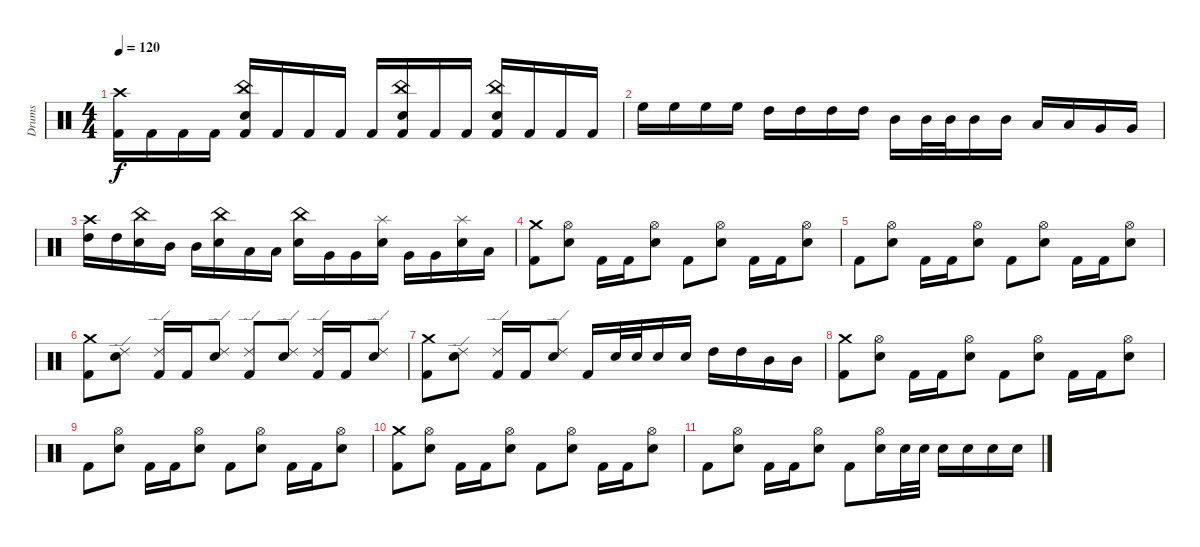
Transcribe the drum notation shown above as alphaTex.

\track ("Drums" "Drums") {instrument percussion}
\staff {score}
\articulation defaults
\ts (4 4)
\tempo 120
\clef neutral
\ks c
("Crash high (hit)" "Kick (hit) 2").16{dy f} "Kick (hit) 2".16 "Kick (hit) 2".16 "Kick (hit) 2".16 ("China (hit)" "Electric Snare (hit)" "Kick (hit) 2").16 "Kick (hit) 2".16 "Kick (hit) 2".16 "Kick (hit) 2".16 "Kick (hit) 2".16 ("China (hit)" "Electric Snare (hit)" "Kick (hit) 2").16 "Kick (hit) 2".16 "Kick (hit) 2".16 ("China (hit)" "Electric Snare (hit)" "Kick (hit) 2").16 "Kick (hit) 2".16 "Kick (hit) 2".16 "Kick (hit) 2".16 |
"High Floor Tom (hit)".16 "High Floor Tom (hit)".16 "High Floor Tom (hit)".16 "High Floor Tom (hit)".16 "High Tom (hit)".16 "High Tom (hit)".16 "High Tom (hit)".16 "High Tom (hit)".16 "Mid Tom (hit)".16 "Mid Tom (hit)".32 "Mid Tom (hit)".32 "Mid Tom (hit)".16 "Mid Tom (hit)".16 "Low Tom (hit)".16 "Low Tom (hit)".16 "Very Low Tom (hit)".16 "Very Low Tom (hit)".16 |
("Crash high (hit)" "High Tom (hit)").16 "High Tom (hit)".16 ("China (hit)" "Electric Snare (hit)").16 "Mid Tom (hit)".16 "Mid Tom (hit)".16 ("China (hit)" "Electric Snare (hit)").16 "Low Tom (hit)".16 "Low Tom (hit)".16 ("China (hit)" "Electric Snare (hit)").16 "Very Low Tom (hit)".16 "Very Low Tom (hit)".16 ("Splash (hit)" "Electric Snare (hit)").16 "Very Low Tom (hit)".16 "Very Low Tom (hit)".16 ("Splash (hit)" "Electric Snare (hit)").16 "Low Floor Tom (hit)".16 |
("Crash medium (hit)" "Kick (hit) 2").8 ("Hi-Hat (open)" "Electric Snare (hit)").8 "Kick (hit) 2".16 "Kick (hit) 2".16 ("Hi-Hat (open)" "Electric Snare (hit)").8 "Kick (hit) 2".8 ("Hi-Hat (open)" "Electric Snare (hit)").8 "Kick (hit) 2".16 "Kick (hit) 2".16 ("Hi-Hat (open)" "Electric Snare (hit)").8 |
"Kick (hit) 2".8 ("Hi-Hat (open)" "Electric Snare (hit)").8 "Kick (hit) 2".16 "Kick (hit) 2".16 ("Hi-Hat (open)" "Electric Snare (hit)").8 "Kick (hit) 2".8 ("Hi-Hat (open)" "Electric Snare (hit)").8 "Kick (hit) 2".16 "Kick (hit) 2".16 ("Hi-Hat (open)" "Electric Snare (hit)").8 |
("Crash medium (hit)" "Kick (hit) 2").8 ("Ride (edge) 2" "Electric Snare (hit)").8 ("Ride (edge) 2" "Kick (hit) 2").16 "Kick (hit) 2".16 ("Ride (edge) 2" "Electric Snare (hit)").8 ("Ride (edge) 2" "Kick (hit) 2").8 ("Ride (edge) 2" "Electric Snare (hit)").8 ("Ride (edge) 2" "Kick (hit) 2").16 "Kick (hit) 2".16 ("Ride (edge) 2" "Electric Snare (hit)").8 |
("Crash medium (hit)" "Kick (hit) 2").8 ("Ride (edge) 2" "Electric Snare (hit)").8 ("Ride (edge) 2" "Kick (hit) 2").16 "Kick (hit) 2".16 ("Ride (edge) 2" "Electric Snare (hit)").8 "Kick (hit) 2".16 "Electric Snare (hit)".32 "Electric Snare (hit)".32 "Electric Snare (hit)".16 "Electric Snare (hit)".16 "High Tom (hit)".16 "High Tom (hit)".16 "Mid Tom (hit)".16 "Mid Tom (hit)".16 |
("Crash medium (hit)" "Kick (hit) 2").8 ("Hi-Hat (open)" "Electric Snare (hit)").8 "Kick (hit) 2".16 "Kick (hit) 2".16 ("Hi-Hat (open)" "Electric Snare (hit)").8 "Kick (hit) 2".8 ("Hi-Hat (open)" "Electric Snare (hit)").8 "Kick (hit) 2".16 "Kick (hit) 2".16 ("Hi-Hat (open)" "Electric Snare (hit)").8 |
"Kick (hit) 2".8 ("Hi-Hat (open)" "Electric Snare (hit)").8 "Kick (hit) 2".16 "Kick (hit) 2".16 ("Hi-Hat (open)" "Electric Snare (hit)").8 "Kick (hit) 2".8 ("Hi-Hat (open)" "Electric Snare (hit)").8 "Kick (hit) 2".16 "Kick (hit) 2".16 ("Hi-Hat (open)" "Electric Snare (hit)").8 |
("Crash medium (hit)" "Kick (hit) 2").8 ("Hi-Hat (open)" "Electric Snare (hit)").8 "Kick (hit) 2".16 "Kick (hit) 2".16 ("Hi-Hat (open)" "Electric Snare (hit)").8 "Kick (hit) 2".8 ("Hi-Hat (open)" "Electric Snare (hit)").8 "Kick (hit) 2".16 "Kick (hit) 2".16 ("Hi-Hat (open)" "Electric Snare (hit)").8 |
"Kick (hit) 2".8 ("Hi-Hat (open)" "Electric Snare (hit)").8 "Kick (hit) 2".16 "Kick (hit) 2".16 ("Hi-Hat (open)" "Electric Snare (hit)").8 "Kick (hit) 2".8 ("Hi-Hat (open)" "Electric Snare (hit)").16 "Electric Snare (hit)".32 "Electric Snare (hit)".32 "Electric Snare (hit)".16 "Electric Snare (hit)".16 "Electric Snare (hit)".16 "Electric Snare (hit)".16
